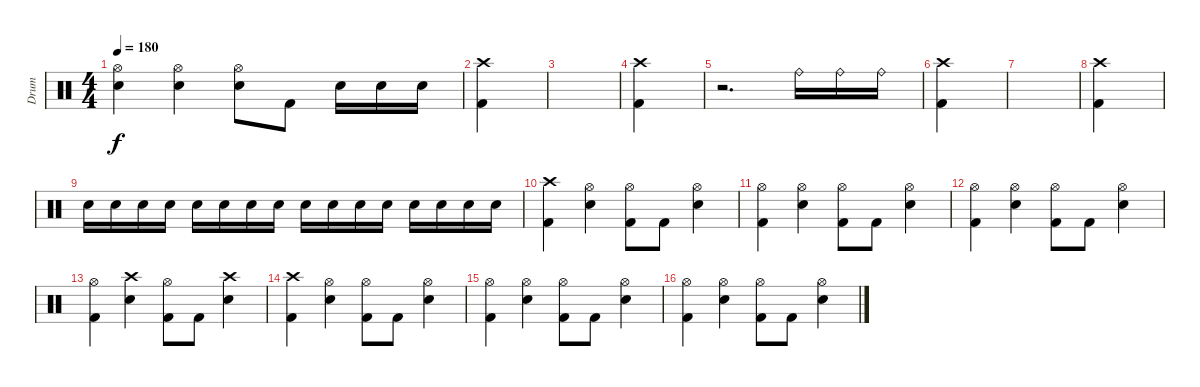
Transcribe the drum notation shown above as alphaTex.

\track ("Drum" "Drum") {instrument percussion}
\staff {score}
\articulation defaults
\ts (4 4)
\tempo 180
\clef neutral
\ks c
("Hi-Hat (open)" "Electric Snare (hit)").4{dy f} ("Hi-Hat (open)" "Electric Snare (hit)").4 ("Hi-Hat (open)" "Electric Snare (hit)").8 "Kick (hit) 2".8 "Electric Snare (hit)".16 "Electric Snare (hit)".16 "Electric Snare (hit)".16 |
("Crash high (hit)" "Kick (hit) 2").4 |
|
("Crash high (hit)" "Kick (hit) 2").4 |
r.2{d} "Ride (bell)".16 "Ride (bell)".16 "Ride (bell)".16 |
("Crash high (hit)" "Kick (hit) 2").4 |
|
("Crash high (hit)" "Kick (hit) 2").4 |
"Electric Snare (hit)".16 "Electric Snare (hit)".16 "Electric Snare (hit)".16 "Electric Snare (hit)".16 "Electric Snare (hit)".16 "Electric Snare (hit)".16 "Electric Snare (hit)".16 "Electric Snare (hit)".16 "Electric Snare (hit)".16 "Electric Snare (hit)".16 "Electric Snare (hit)".16 "Electric Snare (hit)".16 "Electric Snare (hit)".16 "Electric Snare (hit)".16 "Electric Snare (hit)".16 "Electric Snare (hit)".16 |
("Crash high (hit)" "Kick (hit) 2").4 ("Hi-Hat (open)" "Electric Snare (hit)").4 ("Hi-Hat (open)" "Kick (hit) 2").8 "Kick (hit) 2".8 ("Hi-Hat (open)" "Electric Snare (hit)").4 |
("Hi-Hat (open)" "Kick (hit) 2").4 ("Hi-Hat (open)" "Electric Snare (hit)").4 ("Hi-Hat (open)" "Kick (hit) 2").8 "Kick (hit) 2".8 ("Hi-Hat (open)" "Electric Snare (hit)").4 |
("Hi-Hat (open)" "Kick (hit) 2").4 ("Hi-Hat (open)" "Electric Snare (hit)").4 ("Hi-Hat (open)" "Kick (hit) 2").8 "Kick (hit) 2".8 ("Hi-Hat (open)" "Electric Snare (hit)").4 |
("Hi-Hat (open)" "Kick (hit) 2").4 ("Crash high (hit)" "Electric Snare (hit)").4 ("Hi-Hat (open)" "Kick (hit) 2").8 "Kick (hit) 2".8 ("Crash high (hit)" "Electric Snare (hit)").4 |
("Crash high (hit)" "Kick (hit) 2").4 ("Hi-Hat (open)" "Electric Snare (hit)").4 ("Hi-Hat (open)" "Kick (hit) 2").8 "Kick (hit) 2".8 ("Hi-Hat (open)" "Electric Snare (hit)").4 |
("Hi-Hat (open)" "Kick (hit) 2").4 ("Hi-Hat (open)" "Electric Snare (hit)").4 ("Hi-Hat (open)" "Kick (hit) 2").8 "Kick (hit) 2".8 ("Hi-Hat (open)" "Electric Snare (hit)").4 |
("Hi-Hat (open)" "Kick (hit) 2").4 ("Hi-Hat (open)" "Electric Snare (hit)").4 ("Hi-Hat (open)" "Kick (hit) 2").8 "Kick (hit) 2".8 ("Hi-Hat (open)" "Electric Snare (hit)").4
